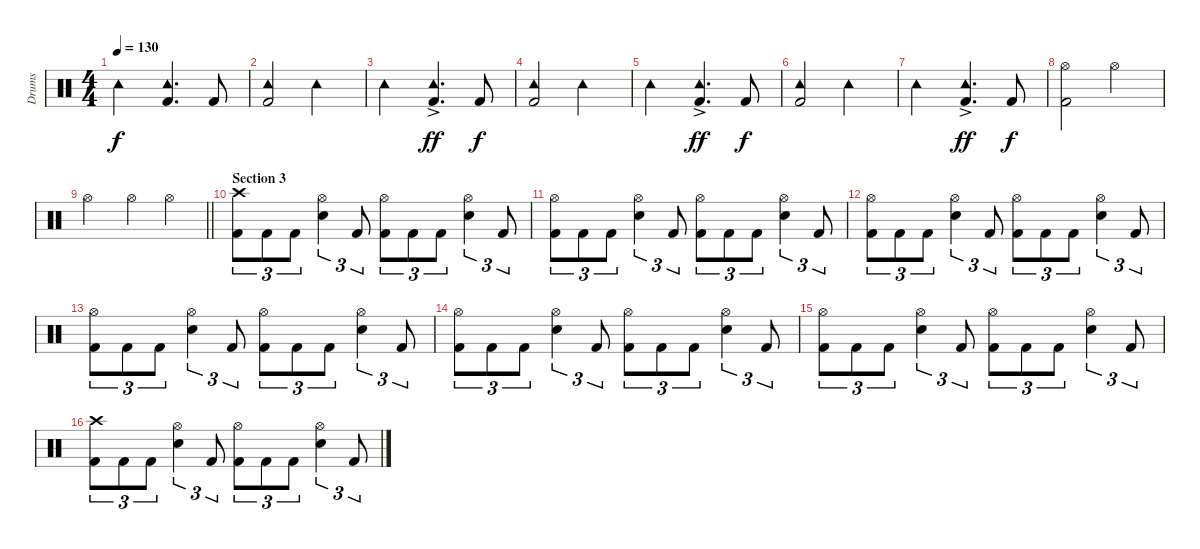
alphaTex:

\track ("Drums" "Drums") {instrument percussion}
\staff {score}
\articulation defaults
\ts (4 4)
\tempo 130
\clef neutral
\ks c "Tambourine (hit)".2{dy f}
("Tambourine (hit)" "Kick (hit) 2").4{d} "Kick (hit) 2".8 |
("Tambourine (hit)" "Kick (hit) 2").2 "Tambourine (hit)".2 |
"Tambourine (hit)".2 ("Tambourine (hit)" "Kick (hit) 2"{ac}).4{d dy ff} "Kick (hit) 2".8{dy f} |
("Tambourine (hit)" "Kick (hit) 2").2 "Tambourine (hit)".2 |
"Tambourine (hit)".2 ("Tambourine (hit)" "Kick (hit) 2"{ac}).4{d dy ff} "Kick (hit) 2".8{dy f} |
("Tambourine (hit)" "Kick (hit) 2").2 "Tambourine (hit)".2 |
"Tambourine (hit)".2 ("Tambourine (hit)" "Kick (hit) 2"{ac}).4{d dy ff} "Kick (hit) 2".8{dy f} |
("Hi-Hat (open)" "Kick (hit) 2").2 "Hi-Hat (open)".2 |
\barLineRight lightlight "Hi-Hat (open)".2 "Hi-Hat (open)".4 "Hi-Hat (open)".4
|
\section ("" "Section 3")
("Crash high (hit)" "Kick (hit) 2").8{tu (3 2)} "Kick (hit) 2".8{tu (3 2)} "Kick (hit) 2".8{tu (3 2)} ("Hi-Hat (open)" "Electric Snare (hit)").4{tu (3 2)} "Kick (hit) 2".8{tu (3 2)} ("Hi-Hat (open)" "Kick (hit) 2").8{tu (3 2)} "Kick (hit) 2".8{tu (3 2)} "Kick (hit) 2".8{tu (3 2)} ("Hi-Hat (open)" "Electric Snare (hit)").4{tu (3 2)} "Kick (hit) 2".8{tu (3 2)} |
("Hi-Hat (open)" "Kick (hit) 2").8{tu (3 2)} "Kick (hit) 2".8{tu (3 2)} "Kick (hit) 2".8{tu (3 2)} ("Hi-Hat (open)" "Electric Snare (hit)").4{tu (3 2)} "Kick (hit) 2".8{tu (3 2)} ("Hi-Hat (open)" "Kick (hit) 2").8{tu (3 2)} "Kick (hit) 2".8{tu (3 2)} "Kick (hit) 2".8{tu (3 2)} ("Hi-Hat (open)" "Electric Snare (hit)").4{tu (3 2)} "Kick (hit) 2".8{tu (3 2)} |
("Hi-Hat (open)" "Kick (hit) 2").8{tu (3 2)} "Kick (hit) 2".8{tu (3 2)} "Kick (hit) 2".8{tu (3 2)} ("Hi-Hat (open)" "Electric Snare (hit)").4{tu (3 2)} "Kick (hit) 2".8{tu (3 2)} ("Hi-Hat (open)" "Kick (hit) 2").8{tu (3 2)} "Kick (hit) 2".8{tu (3 2)} "Kick (hit) 2".8{tu (3 2)} ("Hi-Hat (open)" "Electric Snare (hit)").4{tu (3 2)} "Kick (hit) 2".8{tu (3 2)} |
("Hi-Hat (open)" "Kick (hit) 2").8{tu (3 2)} "Kick (hit) 2".8{tu (3 2)} "Kick (hit) 2".8{tu (3 2)} ("Hi-Hat (open)" "Electric Snare (hit)").4{tu (3 2)} "Kick (hit) 2".8{tu (3 2)} ("Hi-Hat (open)" "Kick (hit) 2").8{tu (3 2)} "Kick (hit) 2".8{tu (3 2)} "Kick (hit) 2".8{tu (3 2)} ("Hi-Hat (open)" "Electric Snare (hit)").4{tu (3 2)} "Kick (hit) 2".8{tu (3 2)} |
("Hi-Hat (open)" "Kick (hit) 2").8{tu (3 2)} "Kick (hit) 2".8{tu (3 2)} "Kick (hit) 2".8{tu (3 2)} ("Hi-Hat (open)" "Electric Snare (hit)").4{tu (3 2)} "Kick (hit) 2".8{tu (3 2)} ("Hi-Hat (open)" "Kick (hit) 2").8{tu (3 2)} "Kick (hit) 2".8{tu (3 2)} "Kick (hit) 2".8{tu (3 2)} ("Hi-Hat (open)" "Electric Snare (hit)").4{tu (3 2)} "Kick (hit) 2".8{tu (3 2)} |
("Hi-Hat (open)" "Kick (hit) 2").8{tu (3 2)} "Kick (hit) 2".8{tu (3 2)} "Kick (hit) 2".8{tu (3 2)} ("Hi-Hat (open)" "Electric Snare (hit)").4{tu (3 2)} "Kick (hit) 2".8{tu (3 2)} ("Hi-Hat (open)" "Kick (hit) 2").8{tu (3 2)} "Kick (hit) 2".8{tu (3 2)} "Kick (hit) 2".8{tu (3 2)} ("Hi-Hat (open)" "Electric Snare (hit)").4{tu (3 2)} "Kick (hit) 2".8{tu (3 2)} |
("Crash high (hit)" "Kick (hit) 2").8{tu (3 2)} "Kick (hit) 2".8{tu (3 2)} "Kick (hit) 2".8{tu (3 2)} ("Hi-Hat (open)" "Electric Snare (hit)").4{tu (3 2)} "Kick (hit) 2".8{tu (3 2)} ("Hi-Hat (open)" "Kick (hit) 2").8{tu (3 2)} "Kick (hit) 2".8{tu (3 2)} "Kick (hit) 2".8{tu (3 2)} ("Hi-Hat (open)" "Electric Snare (hit)").4{tu (3 2)} "Kick (hit) 2".8{tu (3 2)}
